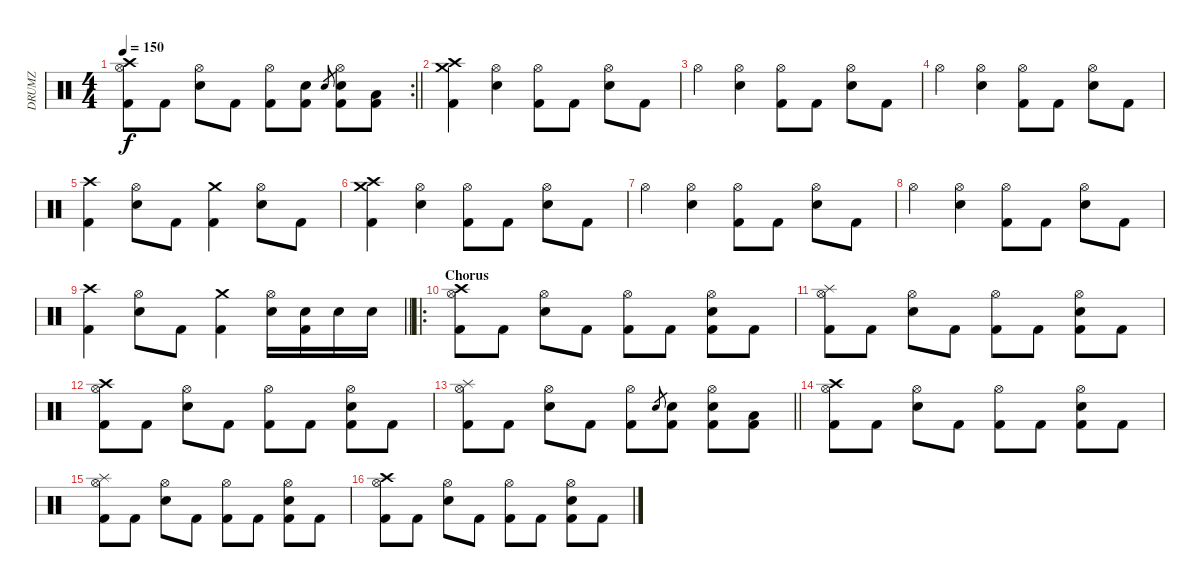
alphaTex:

\track ("DRUMZ" "DRUMZ") {instrument percussion}
\staff {score}
\articulation defaults
\rc 2
\ts (4 4)
\tempo 150
\clef neutral
\barLineRight lightlight
\ks c
("Crash high (hit)" "Hi-Hat (open)" "Kick (hit) 2").8{dy f} "Kick (hit) 2".8 ("Hi-Hat (open)" "Electric Snare (hit)").8 "Kick (hit) 2".8 ("Hi-Hat (open)" "Kick (hit) 2").8 ("Electric Snare (hit)" "Kick (hit) 2").8 "Electric Snare (hit)".8{gr} ("Hi-Hat (open)" "Electric Snare (hit)" "Kick (hit) 2").8 ("Low Floor Tom (hit)" "Kick (hit) 2").8 |
("Crash medium (hit)" "Crash high (hit)" "Kick (hit) 2").4 ("Hi-Hat (open)" "Electric Snare (hit)").4 ("Hi-Hat (open)" "Kick (hit) 2").8 "Kick (hit) 2".8 ("Hi-Hat (open)" "Electric Snare (hit)").8 "Kick (hit) 2".8 |
"Hi-Hat (open)".4 ("Hi-Hat (open)" "Electric Snare (hit)").4 ("Hi-Hat (open)" "Kick (hit) 2").8 "Kick (hit) 2".8 ("Hi-Hat (open)" "Electric Snare (hit)").8 "Kick (hit) 2".8 |
"Hi-Hat (open)".4 ("Hi-Hat (open)" "Electric Snare (hit)").4 ("Hi-Hat (open)" "Kick (hit) 2").8 "Kick (hit) 2".8 ("Hi-Hat (open)" "Electric Snare (hit)").8 "Kick (hit) 2".8 |
("Crash high (hit)" "Kick (hit) 2").4 ("Hi-Hat (open)" "Electric Snare (hit)").8 "Kick (hit) 2".8 ("Crash medium (hit)" "Kick (hit) 2").4 ("Hi-Hat (open)" "Electric Snare (hit)").8 "Kick (hit) 2".8 |
("Crash medium (hit)" "Crash high (hit)" "Kick (hit) 2").4 ("Hi-Hat (open)" "Electric Snare (hit)").4 ("Hi-Hat (open)" "Kick (hit) 2").8 "Kick (hit) 2".8 ("Hi-Hat (open)" "Electric Snare (hit)").8 "Kick (hit) 2".8 |
"Hi-Hat (open)".4 ("Hi-Hat (open)" "Electric Snare (hit)").4 ("Hi-Hat (open)" "Kick (hit) 2").8 "Kick (hit) 2".8 ("Hi-Hat (open)" "Electric Snare (hit)").8 "Kick (hit) 2".8 |
"Hi-Hat (open)".4 ("Hi-Hat (open)" "Electric Snare (hit)").4 ("Hi-Hat (open)" "Kick (hit) 2").8 "Kick (hit) 2".8 ("Hi-Hat (open)" "Electric Snare (hit)").8 "Kick (hit) 2".8 |
\barLineRight lightlight
("Crash high (hit)" "Kick (hit) 2").4 ("Hi-Hat (open)" "Electric Snare (hit)").8 "Kick (hit) 2".8 ("Crash medium (hit)" "Kick (hit) 2").4 ("Hi-Hat (open)" "Electric Snare (hit)").16 ("Electric Snare (hit)" "Kick (hit) 2").16 "Electric Snare (hit)".16 "Electric Snare (hit)".16 |
\ro
\section ("" "Chorus")
("Crash high (hit)" "Hi-Hat (open)" "Kick (hit) 2").8 "Kick (hit) 2".8 ("Hi-Hat (open)" "Electric Snare (hit)").8 "Kick (hit) 2".8 ("Hi-Hat (open)" "Kick (hit) 2").8 "Kick (hit) 2".8 ("Hi-Hat (open)" "Electric Snare (hit)" "Kick (hit) 2").8 "Kick (hit) 2".8 |
("Splash (hit)" "Hi-Hat (open)" "Kick (hit) 2").8 "Kick (hit) 2".8 ("Hi-Hat (open)" "Electric Snare (hit)").8 "Kick (hit) 2".8 ("Hi-Hat (open)" "Kick (hit) 2").8 "Kick (hit) 2".8 ("Hi-Hat (open)" "Electric Snare (hit)" "Kick (hit) 2").8 "Kick (hit) 2".8 |
("Crash high (hit)" "Hi-Hat (open)" "Kick (hit) 2").8 "Kick (hit) 2".8 ("Hi-Hat (open)" "Electric Snare (hit)").8 "Kick (hit) 2".8 ("Hi-Hat (open)" "Kick (hit) 2").8 "Kick (hit) 2".8 ("Hi-Hat (open)" "Electric Snare (hit)" "Kick (hit) 2").8 "Kick (hit) 2".8 |
\barLineRight lightlight
("Splash (hit)" "Hi-Hat (open)" "Kick (hit) 2").8 "Kick (hit) 2".8 ("Hi-Hat (open)" "Electric Snare (hit)").8 "Kick (hit) 2".8 ("Hi-Hat (open)" "Kick (hit) 2").8 "Electric Snare (hit)".8{gr} ("Electric Snare (hit)" "Kick (hit) 2").8 ("Hi-Hat (open)" "Electric Snare (hit)" "Kick (hit) 2").8 ("Low Floor Tom (hit)" "Kick (hit) 2").8 |
("Crash high (hit)" "Hi-Hat (open)" "Kick (hit) 2").8 "Kick (hit) 2".8 ("Hi-Hat (open)" "Electric Snare (hit)").8 "Kick (hit) 2".8 ("Hi-Hat (open)" "Kick (hit) 2").8 "Kick (hit) 2".8 ("Hi-Hat (open)" "Electric Snare (hit)" "Kick (hit) 2").8 "Kick (hit) 2".8 |
("Splash (hit)" "Hi-Hat (open)" "Kick (hit) 2").8 "Kick (hit) 2".8 ("Hi-Hat (open)" "Electric Snare (hit)").8 "Kick (hit) 2".8 ("Hi-Hat (open)" "Kick (hit) 2").8 "Kick (hit) 2".8 ("Hi-Hat (open)" "Electric Snare (hit)" "Kick (hit) 2").8 "Kick (hit) 2".8 |
("Crash high (hit)" "Hi-Hat (open)" "Kick (hit) 2").8 "Kick (hit) 2".8 ("Hi-Hat (open)" "Electric Snare (hit)").8 "Kick (hit) 2".8 ("Hi-Hat (open)" "Kick (hit) 2").8 "Kick (hit) 2".8 ("Hi-Hat (open)" "Electric Snare (hit)" "Kick (hit) 2").8 "Kick (hit) 2".8
